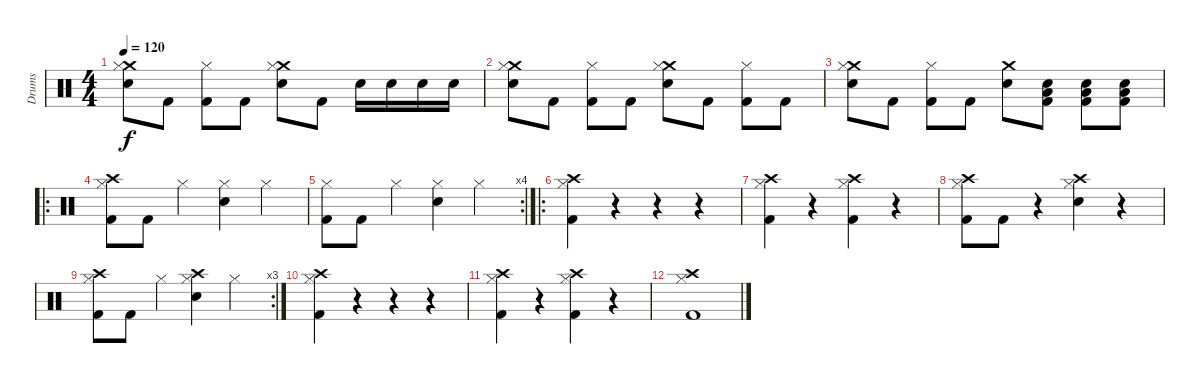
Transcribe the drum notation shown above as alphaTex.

\track ("Drums" "Drums") {instrument percussion}
\staff {score}
\articulation defaults
\ts (4 4)
\tempo 120
\clef neutral
\ks c
("Electric Snare (hit)" "Crash medium (hit)" "Hi-Hat (closed)").8{dy f} "Kick (hit) 2".8 ("Kick (hit) 2" "Hi-Hat (closed)").8 "Kick (hit) 2".8 ("Electric Snare (hit)" "Crash medium (hit)" "Hi-Hat (closed)").8 "Kick (hit) 2".8 "Electric Snare (hit)".16 "Electric Snare (hit)".16 "Electric Snare (hit)".16 "Electric Snare (hit)".16 |
("Electric Snare (hit)" "Crash medium (hit)" "Hi-Hat (closed)").8 "Kick (hit) 2".8 ("Kick (hit) 2" "Hi-Hat (closed)").8 "Kick (hit) 2".8 ("Electric Snare (hit)" "Crash medium (hit)" "Hi-Hat (closed)").8 "Kick (hit) 2".8 ("Kick (hit) 2" "Hi-Hat (closed)").8 "Kick (hit) 2".8 |
("Electric Snare (hit)" "Crash medium (hit)" "Hi-Hat (closed)").8 "Kick (hit) 2".8 ("Kick (hit) 2" "Hi-Hat (closed)").8 "Kick (hit) 2".8 ("Electric Snare (hit)" "Crash medium (hit)").8 ("Kick (hit) 2" "Electric Snare (hit)" "Low Tom (hit)").8 ("Kick (hit) 2" "Electric Snare (hit)" "Low Tom (hit)").8 ("Kick (hit) 2" "Electric Snare (hit)" "Low Tom (hit)").8 |
\ro
("Crash high (hit)" "Kick (hit) 2" "Hi-Hat (closed)").8 "Kick (hit) 2".8 "Hi-Hat (closed)".4 ("Electric Snare (hit)" "Hi-Hat (closed)").4 "Hi-Hat (closed)".4 |
\rc 4
("Kick (hit) 2" "Hi-Hat (closed)").8 "Kick (hit) 2".8 "Hi-Hat (closed)".4 ("Electric Snare (hit)" "Hi-Hat (closed)").4 "Hi-Hat (closed)".4 |
\ro
("Kick (hit) 2" "Crash high (hit)" "Hi-Hat (closed)").4 r.4 r.4 r.4 |
("Kick (hit) 2" "Crash high (hit)" "Hi-Hat (closed)").4 r.4 ("Kick (hit) 2" "Crash high (hit)" "Hi-Hat (closed)").4 r.4 |
("Crash high (hit)" "Kick (hit) 2" "Hi-Hat (closed)").8 "Kick (hit) 2".8 r.4 ("Electric Snare (hit)" "Crash high (hit)" "Hi-Hat (closed)").4 r.4 |
\rc 3
("Kick (hit) 2" "Crash high (hit)" "Hi-Hat (closed)").8 "Kick (hit) 2".8 "Hi-Hat (closed)".4 ("Electric Snare (hit)" "Crash high (hit)" "Hi-Hat (closed)").4 "Hi-Hat (closed)".4 |
("Kick (hit) 2" "Crash high (hit)" "Hi-Hat (closed)").4 r.4 r.4 r.4 |
("Kick (hit) 2" "Crash high (hit)" "Hi-Hat (closed)").4 r.4 ("Kick (hit) 2" "Crash high (hit)" "Hi-Hat (closed)").4 r.4 |
("Crash high (hit)" "Kick (hit) 2" "Hi-Hat (closed)").1
